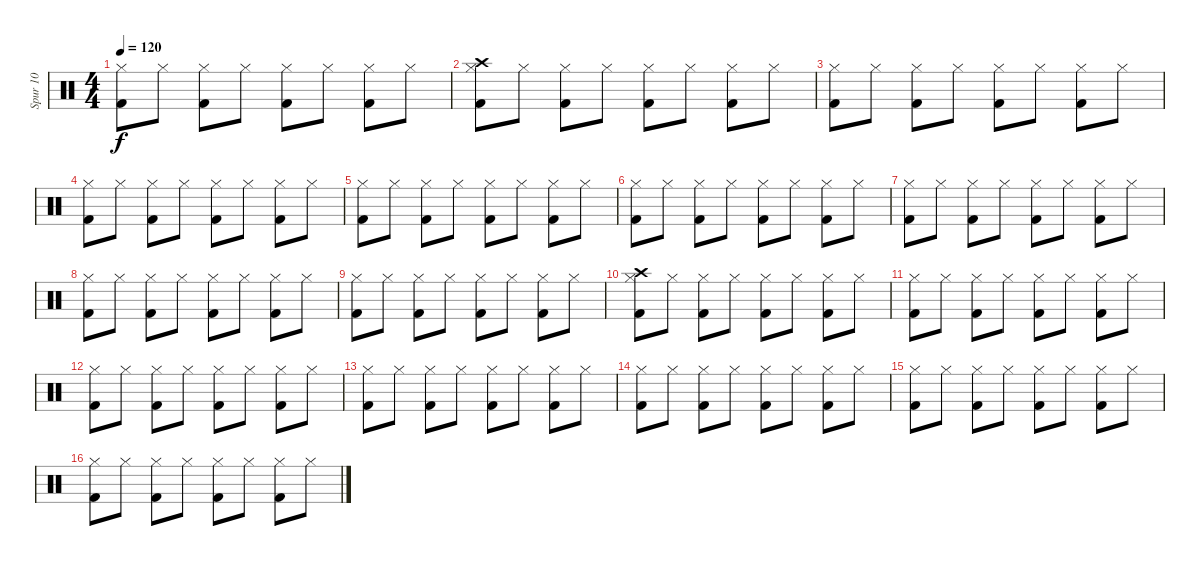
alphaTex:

\track ("Spur 10" "Spur 10") {instrument percussion}
\staff {score}
\articulation defaults
\ts (4 4)
\tempo 120
\clef neutral
\ks c
("Hi-Hat (closed)" "Kick (hit) 2").8{dy f} "Hi-Hat (closed)".8 ("Hi-Hat (closed)" "Kick (hit) 2").8 "Hi-Hat (closed)".8 ("Hi-Hat (closed)" "Kick (hit) 2").8 "Hi-Hat (closed)".8 ("Hi-Hat (closed)" "Kick (hit) 2").8 "Hi-Hat (closed)".8 |
("Kick (hit) 2" "Crash high (hit)" "Hi-Hat (closed)").8 "Hi-Hat (closed)".8 ("Kick (hit) 2" "Hi-Hat (closed)").8 "Hi-Hat (closed)".8 ("Kick (hit) 2" "Hi-Hat (closed)").8 "Hi-Hat (closed)".8 ("Kick (hit) 2" "Hi-Hat (closed)").8 "Hi-Hat (closed)".8 |
("Hi-Hat (closed)" "Kick (hit) 2").8 "Hi-Hat (closed)".8 ("Hi-Hat (closed)" "Kick (hit) 2").8 "Hi-Hat (closed)".8 ("Hi-Hat (closed)" "Kick (hit) 2").8 "Hi-Hat (closed)".8 ("Hi-Hat (closed)" "Kick (hit) 2").8 "Hi-Hat (closed)".8 |
("Hi-Hat (closed)" "Kick (hit) 2").8 "Hi-Hat (closed)".8 ("Hi-Hat (closed)" "Kick (hit) 2").8 "Hi-Hat (closed)".8 ("Hi-Hat (closed)" "Kick (hit) 2").8 "Hi-Hat (closed)".8 ("Hi-Hat (closed)" "Kick (hit) 2").8 "Hi-Hat (closed)".8 |
("Hi-Hat (closed)" "Kick (hit) 2").8 "Hi-Hat (closed)".8 ("Hi-Hat (closed)" "Kick (hit) 2").8 "Hi-Hat (closed)".8 ("Hi-Hat (closed)" "Kick (hit) 2").8 "Hi-Hat (closed)".8 ("Hi-Hat (closed)" "Kick (hit) 2").8 "Hi-Hat (closed)".8 |
("Hi-Hat (closed)" "Kick (hit) 2").8 "Hi-Hat (closed)".8 ("Hi-Hat (closed)" "Kick (hit) 2").8 "Hi-Hat (closed)".8 ("Hi-Hat (closed)" "Kick (hit) 2").8 "Hi-Hat (closed)".8 ("Hi-Hat (closed)" "Kick (hit) 2").8 "Hi-Hat (closed)".8 |
("Hi-Hat (closed)" "Kick (hit) 2").8 "Hi-Hat (closed)".8 ("Hi-Hat (closed)" "Kick (hit) 2").8 "Hi-Hat (closed)".8 ("Hi-Hat (closed)" "Kick (hit) 2").8 "Hi-Hat (closed)".8 ("Hi-Hat (closed)" "Kick (hit) 2").8 "Hi-Hat (closed)".8 |
("Hi-Hat (closed)" "Kick (hit) 2").8 "Hi-Hat (closed)".8 ("Hi-Hat (closed)" "Kick (hit) 2").8 "Hi-Hat (closed)".8 ("Hi-Hat (closed)" "Kick (hit) 2").8 "Hi-Hat (closed)".8 ("Hi-Hat (closed)" "Kick (hit) 2").8 "Hi-Hat (closed)".8 |
("Hi-Hat (closed)" "Kick (hit) 2").8 "Hi-Hat (closed)".8 ("Hi-Hat (closed)" "Kick (hit) 2").8 "Hi-Hat (closed)".8 ("Hi-Hat (closed)" "Kick (hit) 2").8 "Hi-Hat (closed)".8 ("Hi-Hat (closed)" "Kick (hit) 2").8 "Hi-Hat (closed)".8 |
("Hi-Hat (closed)" "Kick (hit) 2" "Crash high (hit)").8 "Hi-Hat (closed)".8 ("Hi-Hat (closed)" "Kick (hit) 2").8 "Hi-Hat (closed)".8 ("Hi-Hat (closed)" "Kick (hit) 2").8 "Hi-Hat (closed)".8 ("Hi-Hat (closed)" "Kick (hit) 2").8 "Hi-Hat (closed)".8 |
("Hi-Hat (closed)" "Kick (hit) 2").8 "Hi-Hat (closed)".8 ("Hi-Hat (closed)" "Kick (hit) 2").8 "Hi-Hat (closed)".8 ("Hi-Hat (closed)" "Kick (hit) 2").8 "Hi-Hat (closed)".8 ("Hi-Hat (closed)" "Kick (hit) 2").8 "Hi-Hat (closed)".8 |
("Hi-Hat (closed)" "Kick (hit) 2").8 "Hi-Hat (closed)".8 ("Hi-Hat (closed)" "Kick (hit) 2").8 "Hi-Hat (closed)".8 ("Hi-Hat (closed)" "Kick (hit) 2").8 "Hi-Hat (closed)".8 ("Hi-Hat (closed)" "Kick (hit) 2").8 "Hi-Hat (closed)".8 |
("Hi-Hat (closed)" "Kick (hit) 2").8 "Hi-Hat (closed)".8 ("Hi-Hat (closed)" "Kick (hit) 2").8 "Hi-Hat (closed)".8 ("Hi-Hat (closed)" "Kick (hit) 2").8 "Hi-Hat (closed)".8 ("Hi-Hat (closed)" "Kick (hit) 2").8 "Hi-Hat (closed)".8 |
("Hi-Hat (closed)" "Kick (hit) 2").8 "Hi-Hat (closed)".8 ("Hi-Hat (closed)" "Kick (hit) 2").8 "Hi-Hat (closed)".8 ("Hi-Hat (closed)" "Kick (hit) 2").8 "Hi-Hat (closed)".8 ("Hi-Hat (closed)" "Kick (hit) 2").8 "Hi-Hat (closed)".8 |
("Hi-Hat (closed)" "Kick (hit) 2").8 "Hi-Hat (closed)".8 ("Hi-Hat (closed)" "Kick (hit) 2").8 "Hi-Hat (closed)".8 ("Hi-Hat (closed)" "Kick (hit) 2").8 "Hi-Hat (closed)".8 ("Hi-Hat (closed)" "Kick (hit) 2").8 "Hi-Hat (closed)".8 |
("Hi-Hat (closed)" "Kick (hit) 2").8 "Hi-Hat (closed)".8 ("Hi-Hat (closed)" "Kick (hit) 2").8 "Hi-Hat (closed)".8 ("Hi-Hat (closed)" "Kick (hit) 2").8 "Hi-Hat (closed)".8 ("Hi-Hat (closed)" "Kick (hit) 2").8 "Hi-Hat (closed)".8
